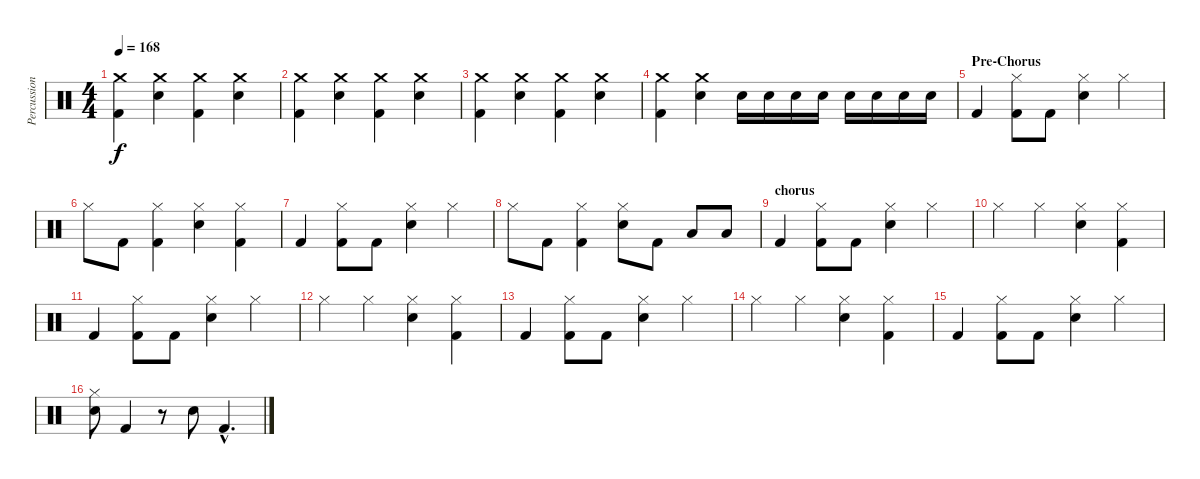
\track ("Percussion" "Percussion") {instrument percussion}
\staff {score}
\articulation defaults
\ts (4 4)
\tempo 168
\clef neutral
\ks c
("Crash medium (hit)" "Kick (hit) 2").4{dy f} ("Crash medium (hit)" "Snare (hit) 2").4 ("Crash medium (hit)" "Kick (hit) 2").4 ("Crash medium (hit)" "Snare (hit) 2").4 |
("Crash medium (hit)" "Kick (hit) 2").4 ("Crash medium (hit)" "Snare (hit) 2").4 ("Crash medium (hit)" "Kick (hit) 2").4 ("Crash medium (hit)" "Snare (hit) 2").4 |
("Crash medium (hit)" "Kick (hit) 2").4 ("Crash medium (hit)" "Snare (hit) 2").4 ("Crash medium (hit)" "Kick (hit) 2").4 ("Crash medium (hit)" "Snare (hit) 2").4 |
("Crash medium (hit)" "Kick (hit) 2").4 ("Crash medium (hit)" "Snare (hit) 2").4 "Snare (hit) 2".16 "Snare (hit) 2".16 "Snare (hit) 2".16 "Snare (hit) 2".16 "Snare (hit) 2".16 "Snare (hit) 2".16 "Snare (hit) 2".16 "Snare (hit) 2".16 |
\section ("" "Pre-Chorus")
"Kick (hit) 2".4 ("Hi-Hat (closed)" "Kick (hit) 2").8 "Kick (hit) 2".8 ("Hi-Hat (closed)" "Snare (hit) 2").4 "Hi-Hat (closed)".4 |
"Hi-Hat (closed)".8 "Kick (hit) 2".8 ("Hi-Hat (closed)" "Kick (hit) 2").4 ("Hi-Hat (closed)" "Snare (hit) 2").4 ("Hi-Hat (closed)" "Kick (hit) 2").4 |
"Kick (hit) 2".4 ("Hi-Hat (closed)" "Kick (hit) 2").8 "Kick (hit) 2".8 ("Hi-Hat (closed)" "Snare (hit) 2").4 "Hi-Hat (closed)".4 |
"Hi-Hat (closed)".8 "Kick (hit) 2".8 ("Hi-Hat (closed)" "Kick (hit) 2").4 ("Hi-Hat (closed)" "Snare (hit) 2").8 "Kick (hit) 2".8 "Low Tom (hit)".8 "Low Tom (hit)".8 |
\section ("" "chorus")
"Kick (hit) 2".4 ("Hi-Hat (closed)" "Kick (hit) 2").8 "Kick (hit) 2".8 ("Hi-Hat (closed)" "Snare (hit) 2").4 "Hi-Hat (closed)".4 |
"Hi-Hat (closed)".4 "Hi-Hat (closed)".4 ("Hi-Hat (closed)" "Snare (hit) 2").4 ("Hi-Hat (closed)" "Kick (hit) 2").4 |
"Kick (hit) 2".4 ("Hi-Hat (closed)" "Kick (hit) 2").8 "Kick (hit) 2".8 ("Hi-Hat (closed)" "Snare (hit) 2").4 "Hi-Hat (closed)".4 |
"Hi-Hat (closed)".4 "Hi-Hat (closed)".4 ("Hi-Hat (closed)" "Snare (hit) 2").4 ("Hi-Hat (closed)" "Kick (hit) 2").4 |
"Kick (hit) 2".4 ("Hi-Hat (closed)" "Kick (hit) 2").8 "Kick (hit) 2".8 ("Hi-Hat (closed)" "Snare (hit) 2").4 "Hi-Hat (closed)".4 |
"Hi-Hat (closed)".4 "Hi-Hat (closed)".4 ("Hi-Hat (closed)" "Snare (hit) 2").4 ("Hi-Hat (closed)" "Kick (hit) 2").4 |
"Kick (hit) 2".4 ("Hi-Hat (closed)" "Kick (hit) 2").8 "Kick (hit) 2".8 ("Hi-Hat (closed)" "Snare (hit) 2").4 "Hi-Hat (closed)".4 |
("Hi-Hat (closed)" "Snare (hit) 2").8 "Kick (hit) 2".4 r.8 "Snare (hit) 2".8 "Kick (hit) 2"{hac}.4{d}
